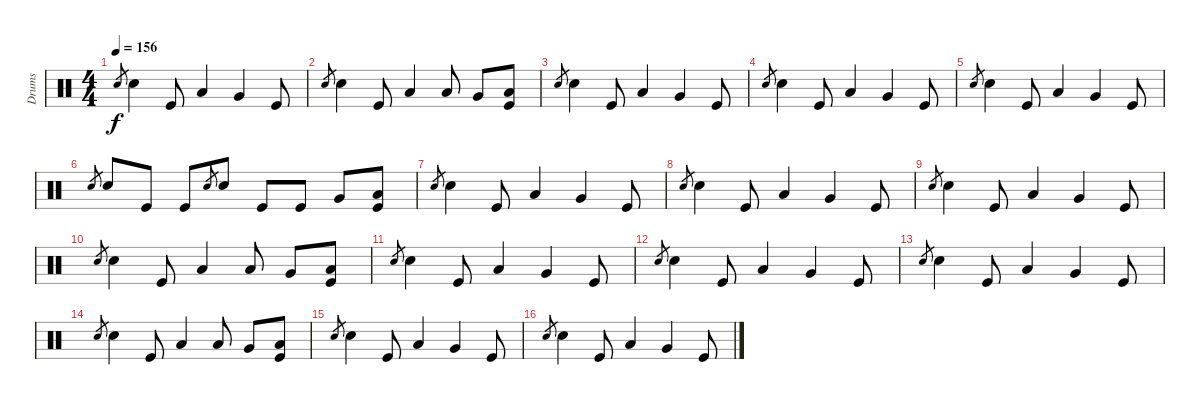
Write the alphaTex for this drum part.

\track ("Drums" "Drums") {instrument percussion}
\staff {score}
\articulation defaults
\ts (4 4)
\tempo 156
\clef neutral
\ks c "Electric Snare (hit)".8{gr dy f} "Electric Snare (hit)".4 "Kick (hit)".8 "Low Tom (hit)".4 "Very Low Tom (hit)".4 "Kick (hit)".8
|
"Electric Snare (hit)".8{gr} "Electric Snare (hit)".4 "Kick (hit)".8 "Low Tom (hit)".4 "Low Tom (hit)".8 "Very Low Tom (hit)".8 ("Low Floor Tom (hit)" "Kick (hit)").8 |
"Electric Snare (hit)".8{gr} "Electric Snare (hit)".4 "Kick (hit)".8 "Low Tom (hit)".4 "Very Low Tom (hit)".4 "Kick (hit)".8 |
"Electric Snare (hit)".8{gr} "Electric Snare (hit)".4 "Kick (hit)".8 "Low Tom (hit)".4 "Very Low Tom (hit)".4 "Kick (hit)".8 |
"Electric Snare (hit)".8{gr} "Electric Snare (hit)".4 "Kick (hit)".8 "Low Tom (hit)".4 "Very Low Tom (hit)".4 "Kick (hit)".8 |
"Electric Snare (hit)".8{gr} "Electric Snare (hit)".8 "Kick (hit)".8 "Kick (hit)".8 "Electric Snare (hit)".8{gr} "Electric Snare (hit)".8 "Kick (hit)".8 "Kick (hit)".8 "Very Low Tom (hit)".8 ("Low Floor Tom (hit)" "Kick (hit)").8 |
"Electric Snare (hit)".8{gr} "Electric Snare (hit)".4 "Kick (hit)".8 "Low Tom (hit)".4 "Very Low Tom (hit)".4 "Kick (hit)".8 |
"Electric Snare (hit)".8{gr} "Electric Snare (hit)".4 "Kick (hit)".8 "Low Tom (hit)".4 "Very Low Tom (hit)".4 "Kick (hit)".8 |
"Electric Snare (hit)".8{gr} "Electric Snare (hit)".4 "Kick (hit)".8 "Low Tom (hit)".4 "Very Low Tom (hit)".4 "Kick (hit)".8 |
"Electric Snare (hit)".8{gr} "Electric Snare (hit)".4 "Kick (hit)".8 "Low Tom (hit)".4 "Low Tom (hit)".8 "Very Low Tom (hit)".8 ("Low Floor Tom (hit)" "Kick (hit)").8 |
"Electric Snare (hit)".8{gr} "Electric Snare (hit)".4 "Kick (hit)".8 "Low Tom (hit)".4 "Very Low Tom (hit)".4 "Kick (hit)".8 |
"Electric Snare (hit)".8{gr} "Electric Snare (hit)".4 "Kick (hit)".8 "Low Tom (hit)".4 "Very Low Tom (hit)".4 "Kick (hit)".8 |
"Electric Snare (hit)".8{gr} "Electric Snare (hit)".4 "Kick (hit)".8 "Low Tom (hit)".4 "Very Low Tom (hit)".4 "Kick (hit)".8 |
"Electric Snare (hit)".8{gr} "Electric Snare (hit)".4 "Kick (hit)".8 "Low Tom (hit)".4 "Low Tom (hit)".8 "Very Low Tom (hit)".8 ("Low Floor Tom (hit)" "Kick (hit)").8 |
"Electric Snare (hit)".8{gr} "Electric Snare (hit)".4 "Kick (hit)".8 "Low Tom (hit)".4 "Very Low Tom (hit)".4 "Kick (hit)".8 |
"Electric Snare (hit)".8{gr} "Electric Snare (hit)".4 "Kick (hit)".8 "Low Tom (hit)".4 "Very Low Tom (hit)".4 "Kick (hit)".8
